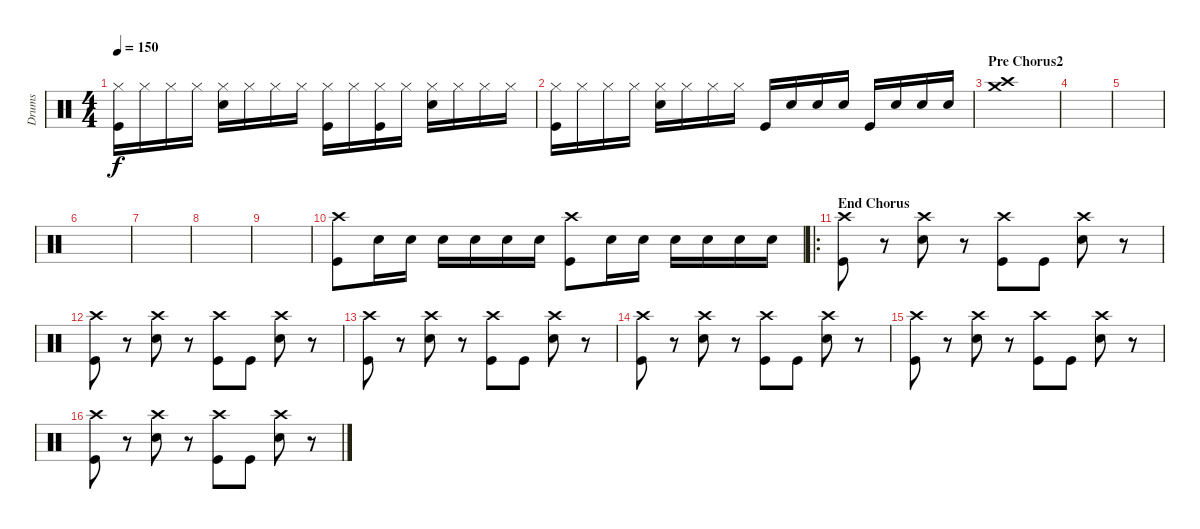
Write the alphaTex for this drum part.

\track ("Drums" "Drums") {instrument percussion}
\staff {score}
\articulation defaults
\ts (4 4)
\tempo 150
\clef neutral
\ks c
("Hi-Hat (closed)" "Kick (hit)").16{dy f} "Hi-Hat (closed)".16 "Hi-Hat (closed)".16 "Hi-Hat (closed)".16 ("Hi-Hat (closed)" "Snare (hit) 2").16 "Hi-Hat (closed)".16 "Hi-Hat (closed)".16 "Hi-Hat (closed)".16 ("Hi-Hat (closed)" "Kick (hit)").16 "Hi-Hat (closed)".16 ("Hi-Hat (closed)" "Kick (hit)").16 "Hi-Hat (closed)".16 ("Hi-Hat (closed)" "Snare (hit) 2").16 "Hi-Hat (closed)".16 "Hi-Hat (closed)".16 "Hi-Hat (closed)".16 |
("Hi-Hat (closed)" "Kick (hit)").16 "Hi-Hat (closed)".16 "Hi-Hat (closed)".16 "Hi-Hat (closed)".16 ("Hi-Hat (closed)" "Snare (hit) 2").16 "Hi-Hat (closed)".16 "Hi-Hat (closed)".16 "Hi-Hat (closed)".16 "Kick (hit)".16 "Snare (hit) 2".16 "Snare (hit) 2".16 "Snare (hit) 2".16 "Kick (hit)".16 "Snare (hit) 2".16 "Snare (hit) 2".16 "Snare (hit) 2".16 |
\section ("" "Pre Chorus2")
("Crash high (hit)" "Crash medium (hit)").1 |
|
|
|
|
|
|
("Crash high (hit)" "Kick (hit)").8 "Snare (hit) 2".16 "Snare (hit) 2".16 "Snare (hit) 2".16 "Snare (hit) 2".16 "Snare (hit) 2".16 "Snare (hit) 2".16 ("Crash high (hit)" "Kick (hit)").8 "Snare (hit) 2".16 "Snare (hit) 2".16 "Snare (hit) 2".16 "Snare (hit) 2".16 "Snare (hit) 2".16 "Snare (hit) 2".16 |
\ro
\section ("" "End Chorus")
("Crash high (hit)" "Kick (hit)").8 r.8 ("Crash high (hit)" "Snare (hit) 2").8 r.8 ("Crash high (hit)" "Kick (hit)").8 "Kick (hit)".8 ("Crash high (hit)" "Snare (hit) 2").8 r.8 |
("Crash high (hit)" "Kick (hit)").8 r.8 ("Crash high (hit)" "Snare (hit) 2").8 r.8 ("Crash high (hit)" "Kick (hit)").8 "Kick (hit)".8 ("Crash high (hit)" "Snare (hit) 2").8 r.8 |
("Crash high (hit)" "Kick (hit)").8 r.8 ("Crash high (hit)" "Snare (hit) 2").8 r.8 ("Crash high (hit)" "Kick (hit)").8 "Kick (hit)".8 ("Crash high (hit)" "Snare (hit) 2").8 r.8 |
("Crash high (hit)" "Kick (hit)").8 r.8 ("Crash high (hit)" "Snare (hit) 2").8 r.8 ("Crash high (hit)" "Kick (hit)").8 "Kick (hit)".8 ("Crash high (hit)" "Snare (hit) 2").8 r.8 |
("Crash high (hit)" "Kick (hit)").8 r.8 ("Crash high (hit)" "Snare (hit) 2").8 r.8 ("Crash high (hit)" "Kick (hit)").8 "Kick (hit)".8 ("Crash high (hit)" "Snare (hit) 2").8 r.8 |
("Crash high (hit)" "Kick (hit)").8 r.8 ("Crash high (hit)" "Snare (hit) 2").8 r.8 ("Crash high (hit)" "Kick (hit)").8 "Kick (hit)".8 ("Crash high (hit)" "Snare (hit) 2").8 r.8
